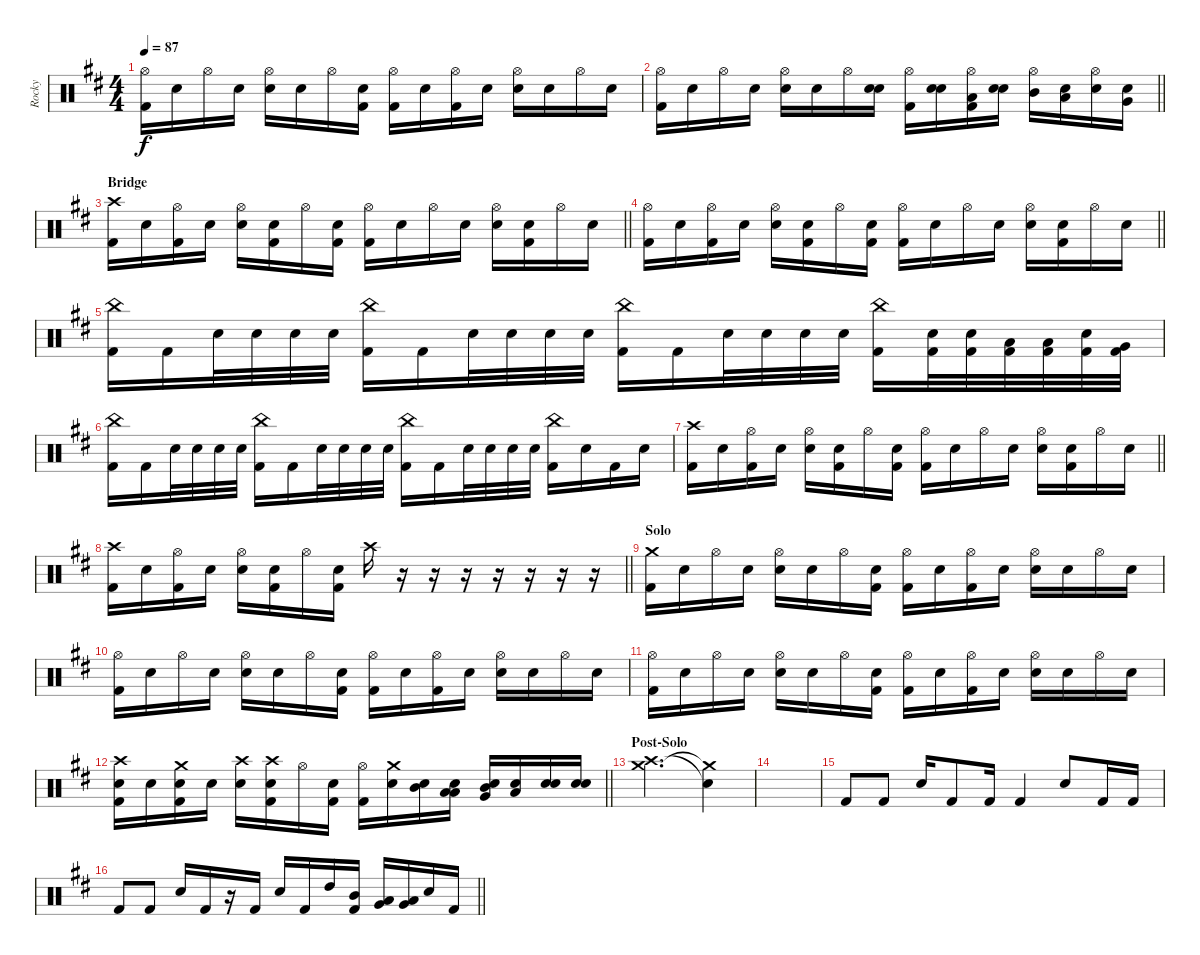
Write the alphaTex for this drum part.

\track ("Rocky" "Rocky") {instrument percussion}
\staff {score}
\articulation defaults
\ts (4 4)
\tempo 87
\clef neutral
\ks d
("Hi-Hat (open)" "Kick (hit) 2").16{dy f} "Snare (hit)".16 "Hi-Hat (open)".16 "Snare (hit)".16 ("Hi-Hat (open)" "Electric Snare (hit)").16 "Snare (hit)".16 "Hi-Hat (open)".16 ("Snare (hit)" "Kick (hit) 2").16 ("Hi-Hat (open)" "Kick (hit) 2").16 "Snare (hit)".16 ("Hi-Hat (open)" "Kick (hit) 2").16 "Snare (hit)".16 ("Hi-Hat (open)" "Electric Snare (hit)").16 "Snare (hit)".16 "Hi-Hat (open)".16 "Snare (hit)".16 |
\barLineRight lightlight
("Hi-Hat (open)" "Kick (hit) 2").16 "Snare (hit)".16 "Hi-Hat (open)".16 "Snare (hit)".16 ("Hi-Hat (open)" "Electric Snare (hit)").16 "Snare (hit)".16 "Hi-Hat (open)".16 ("Snare (hit)" "Electric Snare (hit)").16 ("Hi-Hat (open)" "Kick (hit) 2").16 ("Snare (hit)" "Electric Snare (hit)").16 ("Hi-Hat (open)" "Low Tom (hit)" "Kick (hit) 2").16 ("Snare (hit)" "Electric Snare (hit)").16 ("Hi-Hat (open)" "Mid Tom (hit)").16 ("Snare (hit)" "Low Tom (hit)").16 ("Hi-Hat (open)" "Electric Snare (hit)").16 ("Snare (hit)" "Very Low Tom (hit)").16 |
\section ("" "Bridge")
\barLineRight lightlight
("Crash high (hit)" "Kick (hit) 2").16 "Snare (hit)".16 ("Hi-Hat (open)" "Kick (hit) 2").16 "Snare (hit)".16 ("Hi-Hat (open)" "Electric Snare (hit)").16 ("Snare (hit)" "Kick (hit) 2").16 "Hi-Hat (open)".16 ("Snare (hit)" "Kick (hit) 2").16 ("Hi-Hat (open)" "Kick (hit) 2").16 "Snare (hit)".16 "Hi-Hat (open)".16 "Snare (hit)".16 ("Hi-Hat (open)" "Electric Snare (hit)").16 ("Snare (hit)" "Kick (hit) 2").16 "Hi-Hat (open)".16 "Snare (hit)".16 |
\barLineRight lightlight
("Hi-Hat (open)" "Kick (hit) 2").16 "Snare (hit)".16 ("Hi-Hat (open)" "Kick (hit) 2").16 "Snare (hit)".16 ("Hi-Hat (open)" "Electric Snare (hit)").16 ("Snare (hit)" "Kick (hit) 2").16 "Hi-Hat (open)".16 ("Snare (hit)" "Kick (hit) 2").16 ("Hi-Hat (open)" "Kick (hit) 2").16 "Snare (hit)".16 "Hi-Hat (open)".16 "Snare (hit)".16 ("Hi-Hat (open)" "Electric Snare (hit)").16 ("Snare (hit)" "Kick (hit) 2").16 "Hi-Hat (open)".16 "Snare (hit)".16 |
("China (hit)" "Kick (hit) 2").16 "Kick (hit) 2".16 "Electric Snare (hit)".32 "Electric Snare (hit)".32 "Electric Snare (hit)".32 "Electric Snare (hit)".32 ("China (hit)" "Kick (hit) 2").16 "Kick (hit) 2".16 "Electric Snare (hit)".32 "Electric Snare (hit)".32 "Electric Snare (hit)".32 "Electric Snare (hit)".32 ("China (hit)" "Kick (hit) 2").16 "Kick (hit) 2".16 "Electric Snare (hit)".32 "Electric Snare (hit)".32 "Electric Snare (hit)".32 "Electric Snare (hit)".32 ("China (hit)" "Kick (hit) 2").16 ("Electric Snare (hit)" "Kick (hit) 2").32 ("Electric Snare (hit)" "Kick (hit) 2").32 ("Low Tom (hit)" "Kick (hit) 2").32 ("Low Tom (hit)" "Kick (hit) 2").32 ("Electric Snare (hit)" "Kick (hit) 2").32 ("Very Low Tom (hit)" "Kick (hit) 2").32 |
("China (hit)" "Kick (hit) 2").16 "Kick (hit) 2".16 "Electric Snare (hit)".32 "Electric Snare (hit)".32 "Electric Snare (hit)".32 "Electric Snare (hit)".32 ("China (hit)" "Kick (hit) 2").16 "Kick (hit) 2".16 "Electric Snare (hit)".32 "Electric Snare (hit)".32 "Electric Snare (hit)".32 "Electric Snare (hit)".32 ("China (hit)" "Kick (hit) 2").16 "Kick (hit) 2".16 "Electric Snare (hit)".32 "Electric Snare (hit)".32 "Electric Snare (hit)".32 "Electric Snare (hit)".32 ("China (hit)" "Kick (hit) 2").16 "Electric Snare (hit)".16 "Kick (hit) 2".16 "Electric Snare (hit)".16 |
\barLineRight lightlight
("Crash high (hit)" "Kick (hit) 2").16 "Snare (hit)".16 ("Hi-Hat (open)" "Kick (hit) 2").16 "Snare (hit)".16 ("Hi-Hat (open)" "Electric Snare (hit)").16 ("Snare (hit)" "Kick (hit) 2").16 "Hi-Hat (open)".16 ("Snare (hit)" "Kick (hit) 2").16 ("Hi-Hat (open)" "Kick (hit) 2").16 "Snare (hit)".16 "Hi-Hat (open)".16 "Snare (hit)".16 ("Hi-Hat (open)" "Electric Snare (hit)").16 ("Snare (hit)" "Kick (hit) 2").16 "Hi-Hat (open)".16 "Snare (hit)".16 |
\barLineRight lightlight
("Crash high (hit)" "Kick (hit) 2").16 "Snare (hit)".16 ("Hi-Hat (open)" "Kick (hit) 2").16 "Snare (hit)".16 ("Hi-Hat (open)" "Electric Snare (hit)").16 ("Snare (hit)" "Kick (hit) 2").16 "Hi-Hat (open)".16 ("Snare (hit)" "Kick (hit) 2").16 "Crash high (hit)".16 r.16 r.16 r.16 r.16 r.16 r.16 r.16 |
\section ("" "Solo")
("Crash medium (hit)" "Kick (hit) 2").16 "Snare (hit)".16 "Hi-Hat (open)".16 "Snare (hit)".16 ("Hi-Hat (open)" "Electric Snare (hit)").16 "Snare (hit)".16 "Hi-Hat (open)".16 ("Snare (hit)" "Kick (hit) 2").16 ("Hi-Hat (open)" "Kick (hit) 2").16 "Snare (hit)".16 ("Hi-Hat (open)" "Kick (hit) 2").16 "Snare (hit)".16 ("Hi-Hat (open)" "Electric Snare (hit)").16 "Snare (hit)".16 "Hi-Hat (open)".16 "Snare (hit)".16 |
("Hi-Hat (open)" "Kick (hit) 2").16 "Snare (hit)".16 "Hi-Hat (open)".16 "Snare (hit)".16 ("Hi-Hat (open)" "Electric Snare (hit)").16 "Snare (hit)".16 "Hi-Hat (open)".16 ("Snare (hit)" "Kick (hit) 2").16 ("Hi-Hat (open)" "Kick (hit) 2").16 "Snare (hit)".16 ("Hi-Hat (open)" "Kick (hit) 2").16 "Snare (hit)".16 ("Hi-Hat (open)" "Electric Snare (hit)").16 "Snare (hit)".16 "Hi-Hat (open)".16 "Snare (hit)".16 |
("Hi-Hat (open)" "Kick (hit) 2").16 "Snare (hit)".16 "Hi-Hat (open)".16 "Snare (hit)".16 ("Hi-Hat (open)" "Electric Snare (hit)").16 "Snare (hit)".16 "Hi-Hat (open)".16 ("Snare (hit)" "Kick (hit) 2").16 ("Hi-Hat (open)" "Kick (hit) 2").16 "Snare (hit)".16 ("Hi-Hat (open)" "Kick (hit) 2").16 "Snare (hit)".16 ("Hi-Hat (open)" "Electric Snare (hit)").16 "Snare (hit)".16 "Hi-Hat (open)".16 "Snare (hit)".16 |
\barLineRight lightlight
("Crash high (hit)" "Electric Snare (hit)" "Kick (hit) 2").16 "Snare (hit)".16 ("Crash medium (hit)" "Electric Snare (hit)" "Kick (hit) 2").16 "Snare (hit)".16 ("Crash high (hit)" "Electric Snare (hit)").16 ("Crash high (hit)" "Electric Snare (hit)" "Kick (hit) 2").16 "Hi-Hat (open)".16 ("Snare (hit)" "Kick (hit) 2").16 ("Hi-Hat (open)" "Kick (hit) 2").16 ("Crash medium (hit)" "Electric Snare (hit)").16 ("Snare (hit)" "Mid Tom (hit)").16 ("Snare (hit)" "Low Tom (hit)" "Low Tom (hit)").16 ("Snare (hit)" "Mid Tom (hit)" "Very Low Tom (hit)").16 ("Snare (hit)" "Low Floor Tom (hit)").16 ("Snare (hit)" "Electric Snare (hit)").16 ("Snare (hit)" "Electric Snare (hit)").16 |
\section ("" "Post-Solo")
("Crash high (hit)" "Crash medium (hit)").2{d} ("Snare (hit)"{t} "Crash medium (hit)"{t}).4{volume 0} |
|
"Kick (hit) 2".8{volume 13} "Kick (hit) 2".8 "Snare (hit) 2".16 "Kick (hit) 2".8 "Kick (hit) 2".16 "Kick (hit) 2".4 "Snare (hit) 2".8 "Kick (hit) 2".16 "Kick (hit) 2".16 |
\barLineRight lightlight "Kick (hit) 2".8 "Kick (hit) 2".8 "Snare (hit) 2".16 "Kick (hit) 2".16
r.16 "Kick (hit) 2".16 "Electric Snare (hit)".16 "Kick (hit) 2".16 "High Tom (hit)".16 ("Mid Tom (hit)" "Kick (hit) 2").16 ("Low Tom (hit)" "Very Low Tom (hit)").16 ("Very Low Tom (hit)" "Low Floor Tom (hit)").16 "Electric Snare (hit)".16 "Kick (hit) 2".16
